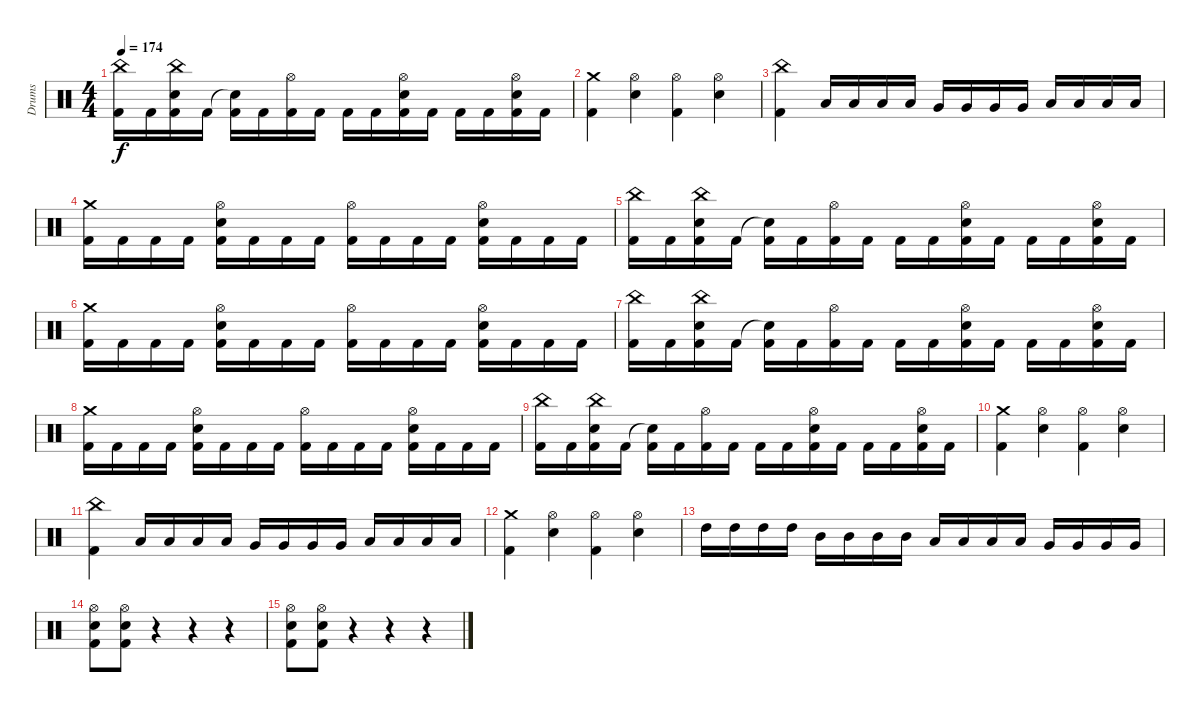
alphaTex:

\track ("Drums" "Drums") {instrument percussion}
\staff {score}
\articulation defaults
\ts (4 4)
\tempo 174
\clef neutral
\ks c
("China (hit)" "Kick (hit) 2").16{dy f} "Kick (hit) 2".16 ("China (hit)" "Kick (hit) 2" "Electric Snare (hit)").16 "Kick (hit) 2".16 ("Snare (hit)"{t} "Kick (hit) 2").16 "Kick (hit) 2".16 ("Hi-Hat (open)" "Kick (hit) 2").16 "Kick (hit) 2".16 "Kick (hit) 2".16 "Kick (hit) 2".16 ("Hi-Hat (open)" "Kick (hit) 2" "Electric Snare (hit)").16 "Kick (hit) 2".16 "Kick (hit) 2".16 "Kick (hit) 2".16 ("Hi-Hat (open)" "Kick (hit) 2" "Electric Snare (hit)").16 "Kick (hit) 2".16 |
("Crash medium (hit)" "Kick (hit) 2").4 ("Hi-Hat (open)" "Electric Snare (hit)").4 ("Hi-Hat (open)" "Kick (hit) 2").4 ("Hi-Hat (open)" "Electric Snare (hit)").4 |
("China (hit)" "Kick (hit) 2").4 "Low Tom (hit)".16 "Low Tom (hit)".16 "Low Tom (hit)".16 "Low Tom (hit)".16 "Very Low Tom (hit)".16 "Very Low Tom (hit)".16 "Very Low Tom (hit)".16 "Very Low Tom (hit)".16 "Low Floor Tom (hit)".16 "Low Floor Tom (hit)".16 "Low Floor Tom (hit)".16 "Low Floor Tom (hit)".16 |
("Crash medium (hit)" "Kick (hit) 2").16 "Kick (hit) 2".16 "Kick (hit) 2".16 "Kick (hit) 2".16 ("Hi-Hat (open)" "Kick (hit) 2" "Electric Snare (hit)").16 "Kick (hit) 2".16 "Kick (hit) 2".16 "Kick (hit) 2".16 ("Hi-Hat (open)" "Kick (hit) 2").16 "Kick (hit) 2".16 "Kick (hit) 2".16 "Kick (hit) 2".16 ("Hi-Hat (open)" "Kick (hit) 2" "Electric Snare (hit)").16 "Kick (hit) 2".16 "Kick (hit) 2".16 "Kick (hit) 2".16 |
("China (hit)" "Kick (hit) 2").16 "Kick (hit) 2".16 ("China (hit)" "Kick (hit) 2" "Electric Snare (hit)").16 "Kick (hit) 2".16 ("Snare (hit)"{t} "Kick (hit) 2").16 "Kick (hit) 2".16 ("Hi-Hat (open)" "Kick (hit) 2").16 "Kick (hit) 2".16 "Kick (hit) 2".16 "Kick (hit) 2".16 ("Hi-Hat (open)" "Kick (hit) 2" "Electric Snare (hit)").16 "Kick (hit) 2".16 "Kick (hit) 2".16 "Kick (hit) 2".16 ("Hi-Hat (open)" "Kick (hit) 2" "Electric Snare (hit)").16 "Kick (hit) 2".16 |
("Crash medium (hit)" "Kick (hit) 2").16 "Kick (hit) 2".16 "Kick (hit) 2".16 "Kick (hit) 2".16 ("Hi-Hat (open)" "Kick (hit) 2" "Electric Snare (hit)").16 "Kick (hit) 2".16 "Kick (hit) 2".16 "Kick (hit) 2".16 ("Hi-Hat (open)" "Kick (hit) 2").16 "Kick (hit) 2".16 "Kick (hit) 2".16 "Kick (hit) 2".16 ("Hi-Hat (open)" "Kick (hit) 2" "Electric Snare (hit)").16 "Kick (hit) 2".16 "Kick (hit) 2".16 "Kick (hit) 2".16 |
("China (hit)" "Kick (hit) 2").16 "Kick (hit) 2".16 ("China (hit)" "Kick (hit) 2" "Electric Snare (hit)").16 "Kick (hit) 2".16 ("Snare (hit)"{t} "Kick (hit) 2").16 "Kick (hit) 2".16 ("Hi-Hat (open)" "Kick (hit) 2").16 "Kick (hit) 2".16 "Kick (hit) 2".16 "Kick (hit) 2".16 ("Hi-Hat (open)" "Kick (hit) 2" "Electric Snare (hit)").16 "Kick (hit) 2".16 "Kick (hit) 2".16 "Kick (hit) 2".16 ("Hi-Hat (open)" "Kick (hit) 2" "Electric Snare (hit)").16 "Kick (hit) 2".16 |
("Crash medium (hit)" "Kick (hit) 2").16 "Kick (hit) 2".16 "Kick (hit) 2".16 "Kick (hit) 2".16 ("Hi-Hat (open)" "Kick (hit) 2" "Electric Snare (hit)").16 "Kick (hit) 2".16 "Kick (hit) 2".16 "Kick (hit) 2".16 ("Hi-Hat (open)" "Kick (hit) 2").16 "Kick (hit) 2".16 "Kick (hit) 2".16 "Kick (hit) 2".16 ("Hi-Hat (open)" "Kick (hit) 2" "Electric Snare (hit)").16 "Kick (hit) 2".16 "Kick (hit) 2".16 "Kick (hit) 2".16 |
("China (hit)" "Kick (hit) 2").16 "Kick (hit) 2".16 ("China (hit)" "Kick (hit) 2" "Electric Snare (hit)").16 "Kick (hit) 2".16 ("Snare (hit)"{t} "Kick (hit) 2").16 "Kick (hit) 2".16 ("Hi-Hat (open)" "Kick (hit) 2").16 "Kick (hit) 2".16 "Kick (hit) 2".16 "Kick (hit) 2".16 ("Hi-Hat (open)" "Kick (hit) 2" "Electric Snare (hit)").16 "Kick (hit) 2".16 "Kick (hit) 2".16 "Kick (hit) 2".16 ("Hi-Hat (open)" "Kick (hit) 2" "Electric Snare (hit)").16 "Kick (hit) 2".16 |
("Crash medium (hit)" "Kick (hit) 2").4 ("Hi-Hat (open)" "Electric Snare (hit)").4 ("Hi-Hat (open)" "Kick (hit) 2").4 ("Hi-Hat (open)" "Electric Snare (hit)").4 |
("China (hit)" "Kick (hit) 2").4 "Low Tom (hit)".16 "Low Tom (hit)".16 "Low Tom (hit)".16 "Low Tom (hit)".16 "Very Low Tom (hit)".16 "Very Low Tom (hit)".16 "Very Low Tom (hit)".16 "Very Low Tom (hit)".16 "Low Floor Tom (hit)".16 "Low Floor Tom (hit)".16 "Low Floor Tom (hit)".16 "Low Floor Tom (hit)".16 |
("Crash medium (hit)" "Kick (hit) 2").4 ("Hi-Hat (open)" "Electric Snare (hit)").4 ("Hi-Hat (open)" "Kick (hit) 2").4 ("Hi-Hat (open)" "Electric Snare (hit)").4 |
"High Tom (hit)".16 "High Tom (hit)".16 "High Tom (hit)".16 "High Tom (hit)".16 "Mid Tom (hit)".16 "Mid Tom (hit)".16 "Mid Tom (hit)".16 "Mid Tom (hit)".16 "Low Tom (hit)".16 "Low Tom (hit)".16 "Low Tom (hit)".16 "Low Tom (hit)".16 "Very Low Tom (hit)".16 "Very Low Tom (hit)".16 "Very Low Tom (hit)".16 "Very Low Tom (hit)".16 |
("Hi-Hat (open)" "Electric Snare (hit)" "Kick (hit) 2").8 ("Hi-Hat (open)" "Electric Snare (hit)" "Kick (hit) 2").8 r.4 r.4 r.4 |
("Hi-Hat (open)" "Electric Snare (hit)" "Kick (hit) 2").8 ("Hi-Hat (open)" "Electric Snare (hit)" "Kick (hit) 2").8 r.4 r.4 r.4
